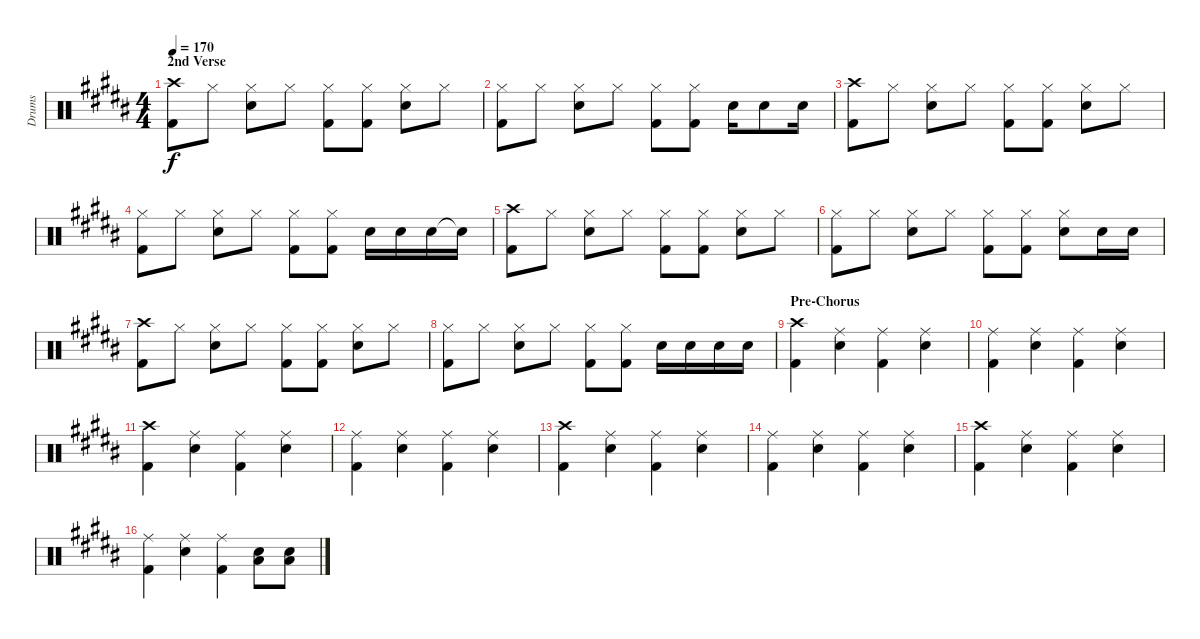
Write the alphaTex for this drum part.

\track ("Drums" "Drums") {instrument percussion}
\staff {score}
\articulation defaults
\ts (4 4)
\section ("" "2nd Verse")
\tempo 170
\clef neutral
\ks b
("Crash high (hit)" "Kick (hit) 2").8{dy f} "Hi-Hat (closed)".8 ("Hi-Hat (closed)" "Electric Snare (hit)").8 "Hi-Hat (closed)".8 ("Hi-Hat (closed)" "Kick (hit) 2").8 ("Hi-Hat (closed)" "Kick (hit) 2").8 ("Hi-Hat (closed)" "Electric Snare (hit)").8 "Hi-Hat (closed)".8 |
("Hi-Hat (closed)" "Kick (hit) 2").8 "Hi-Hat (closed)".8 ("Hi-Hat (closed)" "Electric Snare (hit)").8 "Hi-Hat (closed)".8 ("Hi-Hat (closed)" "Kick (hit) 2").8 ("Hi-Hat (closed)" "Kick (hit) 2").8 "Electric Snare (hit)".16 "Electric Snare (hit)".8 "Electric Snare (hit)".16 |
("Crash high (hit)" "Kick (hit) 2").8 "Hi-Hat (closed)".8 ("Hi-Hat (closed)" "Electric Snare (hit)").8 "Hi-Hat (closed)".8 ("Hi-Hat (closed)" "Kick (hit) 2").8 ("Hi-Hat (closed)" "Kick (hit) 2").8 ("Hi-Hat (closed)" "Electric Snare (hit)").8 "Hi-Hat (closed)".8 |
("Hi-Hat (closed)" "Kick (hit) 2").8 "Hi-Hat (closed)".8 ("Hi-Hat (closed)" "Electric Snare (hit)").8 "Hi-Hat (closed)".8 ("Hi-Hat (closed)" "Kick (hit) 2").8 ("Hi-Hat (closed)" "Kick (hit) 2").8 "Electric Snare (hit)".16 "Electric Snare (hit)".16 "Electric Snare (hit)".16 "Electric Snare (hit)"{t}.16 |
("Crash high (hit)" "Kick (hit) 2").8 "Hi-Hat (closed)".8 ("Hi-Hat (closed)" "Electric Snare (hit)").8 "Hi-Hat (closed)".8 ("Hi-Hat (closed)" "Kick (hit) 2").8 ("Hi-Hat (closed)" "Kick (hit) 2").8 ("Hi-Hat (closed)" "Electric Snare (hit)").8 "Hi-Hat (closed)".8 |
("Hi-Hat (closed)" "Kick (hit) 2").8 "Hi-Hat (closed)".8 ("Hi-Hat (closed)" "Electric Snare (hit)").8 "Hi-Hat (closed)".8 ("Hi-Hat (closed)" "Kick (hit) 2").8 ("Hi-Hat (closed)" "Kick (hit) 2").8 ("Hi-Hat (closed)" "Electric Snare (hit)").8 "Electric Snare (hit)".16 "Electric Snare (hit)".16 |
("Crash high (hit)" "Kick (hit) 2").8 "Hi-Hat (closed)".8 ("Hi-Hat (closed)" "Electric Snare (hit)").8 "Hi-Hat (closed)".8 ("Hi-Hat (closed)" "Kick (hit) 2").8 ("Hi-Hat (closed)" "Kick (hit) 2").8 ("Hi-Hat (closed)" "Electric Snare (hit)").8 "Hi-Hat (closed)".8 |
("Hi-Hat (closed)" "Kick (hit) 2").8 "Hi-Hat (closed)".8 ("Hi-Hat (closed)" "Electric Snare (hit)").8 "Hi-Hat (closed)".8 ("Hi-Hat (closed)" "Kick (hit) 2").8 ("Hi-Hat (closed)" "Kick (hit) 2").8 "Electric Snare (hit)".16 "Electric Snare (hit)".16 "Electric Snare (hit)".16 "Electric Snare (hit)".16 |
\section ("" "Pre-Chorus")
("Crash high (hit)" "Kick (hit) 2").4 ("Ride (middle)" "Electric Snare (hit)").4 ("Ride (middle)" "Kick (hit) 2").4 ("Ride (middle)" "Electric Snare (hit)").4 |
("Ride (middle)" "Kick (hit) 2").4 ("Ride (middle)" "Electric Snare (hit)").4 ("Ride (middle)" "Kick (hit) 2").4 ("Ride (middle)" "Electric Snare (hit)").4 |
("Crash high (hit)" "Kick (hit) 2").4 ("Ride (middle)" "Electric Snare (hit)").4 ("Ride (middle)" "Kick (hit) 2").4 ("Ride (middle)" "Electric Snare (hit)").4 |
("Ride (middle)" "Kick (hit) 2").4 ("Ride (middle)" "Electric Snare (hit)").4 ("Ride (middle)" "Kick (hit) 2").4 ("Ride (middle)" "Electric Snare (hit)").4 |
("Crash high (hit)" "Kick (hit) 2").4 ("Ride (middle)" "Electric Snare (hit)").4 ("Ride (middle)" "Kick (hit) 2").4 ("Ride (middle)" "Electric Snare (hit)").4 |
("Ride (middle)" "Kick (hit) 2").4 ("Ride (middle)" "Electric Snare (hit)").4 ("Ride (middle)" "Kick (hit) 2").4 ("Ride (middle)" "Electric Snare (hit)").4 |
("Crash high (hit)" "Kick (hit) 2").4 ("Ride (middle)" "Electric Snare (hit)").4 ("Ride (middle)" "Kick (hit) 2").4 ("Ride (middle)" "Electric Snare (hit)").4 |
("Ride (middle)" "Kick (hit) 2").4 ("Ride (middle)" "Electric Snare (hit)").4 ("Ride (middle)" "Kick (hit) 2").4 ("Low Tom (hit)" "Electric Snare (hit)").8 ("Low Tom (hit)" "Electric Snare (hit)").8
